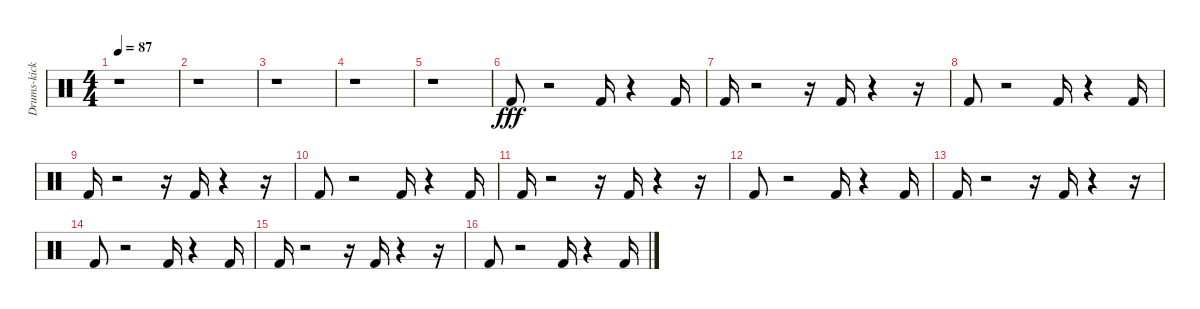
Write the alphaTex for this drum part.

\track ("Drums-kick drum 1" "Drums-kick") {instrument percussion}
\staff {score}
\articulation defaults
\ts (4 4)
\tempo 87
\clef neutral
\ks c
r.1{dy fff} |
r.1 |
r.1 |
r.1 |
r.1 |
"Kick (hit) 2".8 r.2 "Kick (hit) 2".16 r.4 "Kick (hit) 2".16 |
"Kick (hit) 2".16 r.2 r.16 "Kick (hit) 2".16 r.4 r.16 |
"Kick (hit) 2".8 r.2 "Kick (hit) 2".16 r.4 "Kick (hit) 2".16 |
"Kick (hit) 2".16 r.2 r.16 "Kick (hit) 2".16 r.4 r.16 |
"Kick (hit) 2".8 r.2 "Kick (hit) 2".16 r.4 "Kick (hit) 2".16 |
"Kick (hit) 2".16 r.2 r.16 "Kick (hit) 2".16 r.4 r.16 |
"Kick (hit) 2".8 r.2 "Kick (hit) 2".16 r.4 "Kick (hit) 2".16 |
"Kick (hit) 2".16 r.2 r.16 "Kick (hit) 2".16 r.4 r.16 |
"Kick (hit) 2".8 r.2 "Kick (hit) 2".16 r.4 "Kick (hit) 2".16 |
"Kick (hit) 2".16 r.2 r.16 "Kick (hit) 2".16 r.4 r.16 |
"Kick (hit) 2".8 r.2 "Kick (hit) 2".16 r.4 "Kick (hit) 2".16
